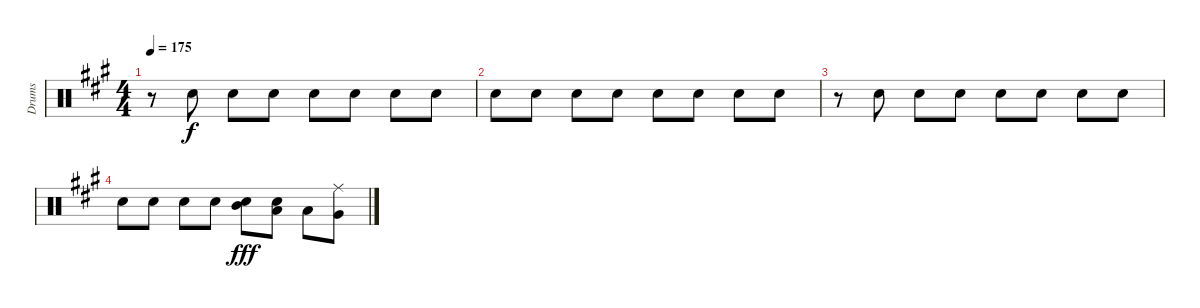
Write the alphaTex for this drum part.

\track ("Drums" "Drums") {instrument percussion}
\staff {score}
\articulation defaults
\ts (4 4)
\tempo 175
\clef neutral
\ks f#minor
r.8{dy f} "Snare (hit) 2".8 "Snare (hit) 2".8 "Snare (hit) 2".8 "Snare (hit) 2".8 "Snare (hit) 2".8 "Snare (hit) 2".8 "Snare (hit) 2".8 |
"Snare (hit) 2".8 "Snare (hit) 2".8 "Snare (hit) 2".8 "Snare (hit) 2".8 "Snare (hit) 2".8 "Snare (hit) 2".8 "Snare (hit) 2".8 "Snare (hit) 2".8 |
r.8 "Snare (hit) 2".8 "Snare (hit) 2".8 "Snare (hit) 2".8 "Snare (hit) 2".8 "Snare (hit) 2".8 "Snare (hit) 2".8 "Snare (hit) 2".8 |
"Snare (hit) 2".8 "Snare (hit) 2".8 "Snare (hit) 2".8 "Snare (hit) 2".8 ("Mid Tom (hit)" "Snare (hit) 2").8{dy fff} ("Low Tom (hit)" "Snare (hit) 2").8 "Low Tom (hit)".8 ("Ride (middle)" "Very Low Tom (hit)").8
